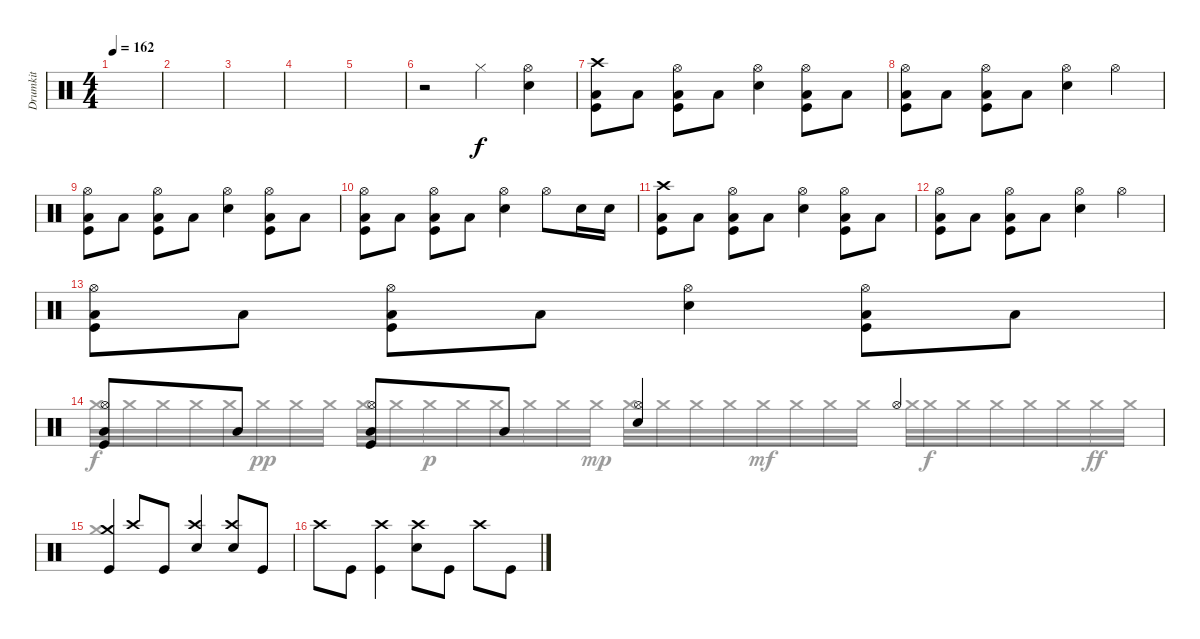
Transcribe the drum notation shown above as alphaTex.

\track ("Drumkit" "Drumkit") {instrument percussion}
\staff {score}
\articulation defaults
\voice
\ts (4 4)
\tempo 162
\clef neutral
\ks c
|
|
|
|
|
r.2 "Hi-Hat (closed)".4 ("Snare (hit) 2" "Hi-Hat (open)").4 |
("Kick (hit)" "Low Floor Tom (hit)" "Crash high (hit)").8 "Low Floor Tom (hit)".8 ("Kick (hit)" "Low Floor Tom (hit)" "Hi-Hat (open)").8 "Low Floor Tom (hit)".8 ("Snare (hit) 2" "Hi-Hat (open)").4 ("Kick (hit)" "Low Floor Tom (hit)" "Hi-Hat (open)").8 "Low Floor Tom (hit)".8 |
("Kick (hit)" "Low Floor Tom (hit)" "Hi-Hat (open)").8 "Low Floor Tom (hit)".8 ("Kick (hit)" "Low Floor Tom (hit)" "Hi-Hat (open)").8 "Low Floor Tom (hit)".8 ("Snare (hit) 2" "Hi-Hat (open)").4 "Hi-Hat (open)".4 |
("Kick (hit)" "Low Floor Tom (hit)" "Hi-Hat (open)").8 "Low Floor Tom (hit)".8 ("Kick (hit)" "Low Floor Tom (hit)" "Hi-Hat (open)").8 "Low Floor Tom (hit)".8 ("Snare (hit) 2" "Hi-Hat (open)").4 ("Kick (hit)" "Low Floor Tom (hit)" "Hi-Hat (open)").8 "Low Floor Tom (hit)".8 |
("Kick (hit)" "Low Floor Tom (hit)" "Hi-Hat (open)").8 "Low Floor Tom (hit)".8 ("Kick (hit)" "Low Floor Tom (hit)" "Hi-Hat (open)").8 "Low Floor Tom (hit)".8 ("Snare (hit) 2" "Hi-Hat (open)").4 "Hi-Hat (open)".8 "Snare (hit) 2".16 "Snare (hit) 2".16 |
("Kick (hit)" "Low Floor Tom (hit)" "Crash high (hit)").8 "Low Floor Tom (hit)".8 ("Kick (hit)" "Low Floor Tom (hit)" "Hi-Hat (open)").8 "Low Floor Tom (hit)".8 ("Snare (hit) 2" "Hi-Hat (open)").4 ("Kick (hit)" "Low Floor Tom (hit)" "Hi-Hat (open)").8 "Low Floor Tom (hit)".8 |
("Kick (hit)" "Low Floor Tom (hit)" "Hi-Hat (open)").8 "Low Floor Tom (hit)".8 ("Kick (hit)" "Low Floor Tom (hit)" "Hi-Hat (open)").8 "Low Floor Tom (hit)".8 ("Snare (hit) 2" "Hi-Hat (open)").4 "Hi-Hat (open)".4 |
("Kick (hit)" "Low Floor Tom (hit)" "Hi-Hat (open)").8 "Low Floor Tom (hit)".8 ("Kick (hit)" "Low Floor Tom (hit)" "Hi-Hat (open)").8 "Low Floor Tom (hit)".8 ("Snare (hit) 2" "Hi-Hat (open)").4 ("Kick (hit)" "Low Floor Tom (hit)" "Hi-Hat (open)").8 "Low Floor Tom (hit)".8 |
("Kick (hit)" "Low Floor Tom (hit)" "Hi-Hat (open)").8 "Low Floor Tom (hit)".8 ("Kick (hit)" "Low Floor Tom (hit)" "Hi-Hat (open)").8 "Low Floor Tom (hit)".8 ("Snare (hit) 2" "Hi-Hat (open)").4 "Hi-Hat (open)".4 |
("Kick (hit)" "Crash medium (hit)").4 "Crash high (hit)".8 "Kick (hit)".8 ("Snare (hit) 2" "Crash high (hit)").4 ("Snare (hit) 2" "Crash high (hit)").8 "Kick (hit)".8 |
"Crash high (hit)".8 "Kick (hit)".8 ("Kick (hit)" "Crash high (hit)").4 ("Snare (hit) 2" "Crash high (hit)").8 "Kick (hit)".8 "Crash high (hit)".8 "Kick (hit)".8
\voice
\clef neutral
\ottava regular
\simile none
\ks c
|
|
|
|
|
|
|
|
|
|
|
|
|
"Crash medium (hit)".32 "Crash medium (hit)".32 "Crash medium (hit)".32 "Crash medium (hit)".32 "Crash medium (hit)".32 "Crash medium (hit)".32{dy pp} "Crash medium (hit)".32 "Crash medium (hit)".32 "Crash medium (hit)".32 "Crash medium (hit)".32 "Crash medium (hit)".32{dy p} "Crash medium (hit)".32 "Crash medium (hit)".32 "Crash medium (hit)".32 "Crash medium (hit)".32 "Crash medium (hit)".32{dy mp} "Crash medium (hit)".32 "Crash medium (hit)".32 "Crash medium (hit)".32 "Crash medium (hit)".32 "Crash medium (hit)".32{dy mf} "Crash medium (hit)".32 "Crash medium (hit)".32 "Crash medium (hit)".32 "Crash medium (hit)".32 "Crash medium (hit)".32{dy f} "Crash medium (hit)".32 "Crash medium (hit)".32 "Crash medium (hit)".32 "Crash medium (hit)".32 "Crash medium (hit)".32{dy ff} "Crash medium (hit)".32 |
"Crash medium (hit)".1 |
